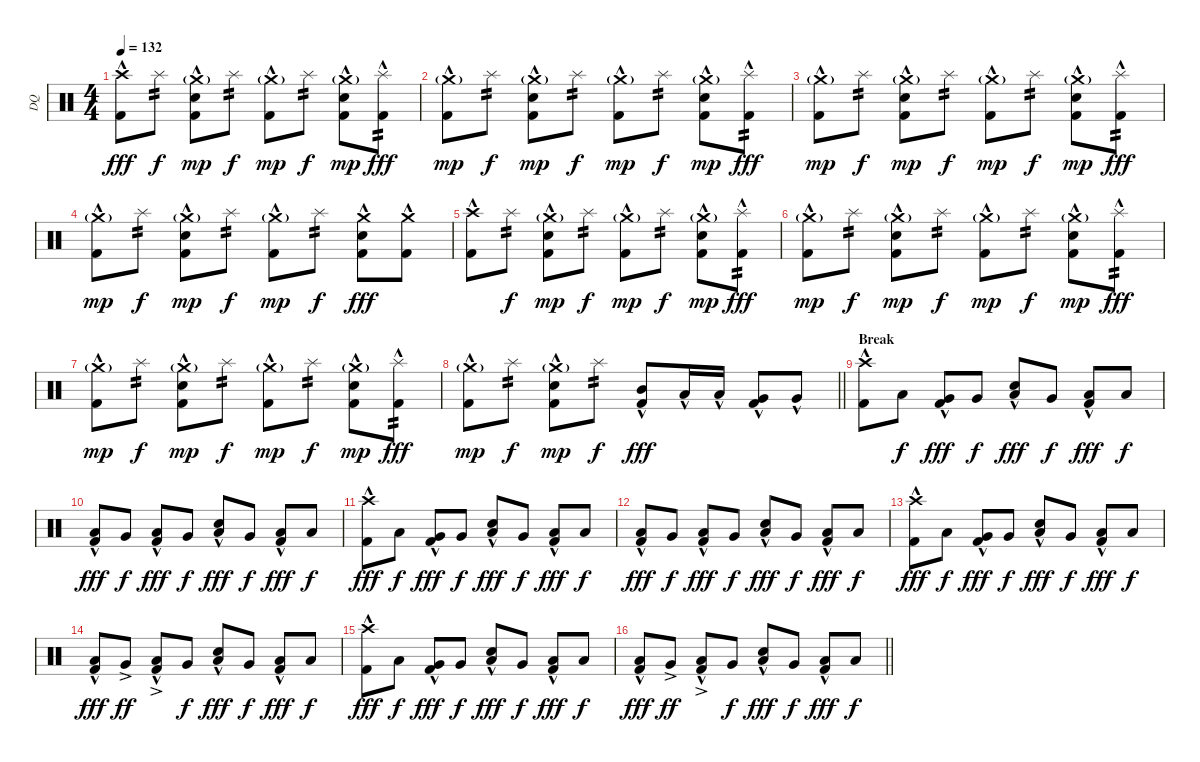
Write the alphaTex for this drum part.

\track ("DQ" "DQ") {instrument percussion}
\staff {score}
\articulation defaults
\ts (4 4)
\section ("" "")
\tempo 132
\clef neutral
\ks c
("Kick (hit) 2"{hac} "Crash high (hit)").8{dy fff} "Splash (hit)".8{tp 2 dy f} ("Kick (hit) 2"{hac} "Snare (hit) 2"{hac} "Crash medium (hit)"{g}).8{dy mp} "Splash (hit)".8{tp 2 dy f} ("Kick (hit) 2"{hac} "Crash medium (hit)"{g}).8{dy mp} "Splash (hit)".8{tp 2 dy f} ("Kick (hit) 2"{hac} "Snare (hit) 2"{hac} "Crash medium (hit)"{g}).8{dy mp} ("Kick (hit) 2"{hac} "Splash (hit)").8{tp 2 dy fff} |
("Kick (hit) 2"{hac} "Crash medium (hit)"{g}).8{dy mp} "Splash (hit)".8{tp 2 dy f} ("Kick (hit) 2"{hac} "Snare (hit) 2"{hac} "Crash medium (hit)"{g}).8{dy mp} "Splash (hit)".8{tp 2 dy f} ("Kick (hit) 2"{hac} "Crash medium (hit)"{g}).8{dy mp} "Splash (hit)".8{tp 2 dy f} ("Kick (hit) 2"{hac} "Snare (hit) 2"{hac} "Crash medium (hit)"{g}).8{dy mp} ("Kick (hit) 2"{hac} "Splash (hit)").8{tp 2 dy fff} |
("Kick (hit) 2"{hac} "Crash medium (hit)"{g}).8{dy mp} "Splash (hit)".8{tp 2 dy f} ("Kick (hit) 2"{hac} "Snare (hit) 2"{hac} "Crash medium (hit)"{g}).8{dy mp} "Splash (hit)".8{tp 2 dy f} ("Kick (hit) 2"{hac} "Crash medium (hit)"{g}).8{dy mp} "Splash (hit)".8{tp 2 dy f} ("Kick (hit) 2"{hac} "Snare (hit) 2"{hac} "Crash medium (hit)"{g}).8{dy mp} ("Kick (hit) 2"{hac} "Splash (hit)").8{tp 2 dy fff} |
("Kick (hit) 2"{hac} "Crash medium (hit)"{g}).8{dy mp} "Splash (hit)".8{tp 2 dy f} ("Kick (hit) 2"{hac} "Snare (hit) 2"{hac} "Crash medium (hit)"{g}).8{dy mp} "Splash (hit)".8{tp 2 dy f} ("Kick (hit) 2"{hac} "Crash medium (hit)"{g}).8{dy mp} "Splash (hit)".8{tp 2 dy f} ("Kick (hit) 2"{hac} "Snare (hit) 2"{hac} "Crash medium (hit)").8{dy fff} ("Kick (hit) 2"{hac} "Crash medium (hit)").8 |
("Kick (hit) 2"{hac} "Crash high (hit)").8 "Splash (hit)".8{tp 2 dy f} ("Kick (hit) 2"{hac} "Snare (hit) 2"{hac} "Crash medium (hit)"{g}).8{dy mp} "Splash (hit)".8{tp 2 dy f} ("Kick (hit) 2"{hac} "Crash medium (hit)"{g}).8{dy mp} "Splash (hit)".8{tp 2 dy f} ("Kick (hit) 2"{hac} "Snare (hit) 2"{hac} "Crash medium (hit)"{g}).8{dy mp} ("Kick (hit) 2"{hac} "Splash (hit)").8{tp 2 dy fff} |
("Kick (hit) 2"{hac} "Crash medium (hit)"{g}).8{dy mp} "Splash (hit)".8{tp 2 dy f} ("Kick (hit) 2"{hac} "Snare (hit) 2"{hac} "Crash medium (hit)"{g}).8{dy mp} "Splash (hit)".8{tp 2 dy f} ("Kick (hit) 2"{hac} "Crash medium (hit)"{g}).8{dy mp} "Splash (hit)".8{tp 2 dy f} ("Kick (hit) 2"{hac} "Snare (hit) 2"{hac} "Crash medium (hit)"{g}).8{dy mp} ("Kick (hit) 2"{hac} "Splash (hit)").8{tp 2 dy fff} |
("Kick (hit) 2"{hac} "Crash medium (hit)"{g}).8{dy mp} "Splash (hit)".8{tp 2 dy f} ("Kick (hit) 2"{hac} "Snare (hit) 2"{hac} "Crash medium (hit)"{g}).8{dy mp} "Splash (hit)".8{tp 2 dy f} ("Kick (hit) 2"{hac} "Crash medium (hit)"{g}).8{dy mp} "Splash (hit)".8{tp 2 dy f} ("Kick (hit) 2"{hac} "Snare (hit) 2"{hac} "Crash medium (hit)"{g}).8{dy mp} ("Kick (hit) 2"{hac} "Splash (hit)").8{tp 2 dy fff} |
\barLineRight lightlight
("Kick (hit) 2"{hac} "Crash medium (hit)"{g}).8{dy mp} "Splash (hit)".8{tp 2 dy f} ("Kick (hit) 2"{hac} "Snare (hit) 2"{hac} "Crash medium (hit)"{g}).8{dy mp} "Splash (hit)".8{tp 2 dy f} ("Kick (hit) 2"{hac} "Mid Tom (hit)"{hac}).8{dy fff} "Low Tom (hit)"{hac}.16 "Low Tom (hit)"{hac}.16 ("Kick (hit) 2"{hac} "Very Low Tom (hit)"{hac}).8 "Very Low Tom (hit)"{hac}.8 |
\section ("" "Break")
("Kick (hit) 2"{hac} "Crash high (hit)").8 "Low Floor Tom (hit)".8{dy f} ("Kick (hit) 2"{hac} "Very Low Tom (hit)").8{dy fff} "Very Low Tom (hit)".8{dy f} ("Snare (hit) 2"{hac} "Low Floor Tom (hit)").8{dy fff} "Very Low Tom (hit)".8{dy f} ("Kick (hit) 2"{hac} "Low Floor Tom (hit)").8{dy fff} "Low Floor Tom (hit)".8{dy f} |
("Kick (hit) 2"{hac} "Low Floor Tom (hit)").8{dy fff} "Very Low Tom (hit)".8{dy f} ("Kick (hit) 2"{hac} "Low Floor Tom (hit)").8{dy fff} "Very Low Tom (hit)".8{dy f} ("Snare (hit) 2"{hac} "Low Floor Tom (hit)").8{dy fff} "Very Low Tom (hit)".8{dy f} ("Kick (hit) 2"{hac} "Low Floor Tom (hit)").8{dy fff} "Low Floor Tom (hit)".8{dy f} |
("Kick (hit) 2"{hac} "Crash high (hit)").8{dy fff} "Low Floor Tom (hit)".8{dy f} ("Kick (hit) 2"{hac} "Very Low Tom (hit)").8{dy fff} "Very Low Tom (hit)".8{dy f} ("Snare (hit) 2"{hac} "Low Floor Tom (hit)").8{dy fff} "Very Low Tom (hit)".8{dy f} ("Kick (hit) 2"{hac} "Low Floor Tom (hit)").8{dy fff} "Low Floor Tom (hit)".8{dy f} |
("Kick (hit) 2"{hac} "Low Floor Tom (hit)").8{dy fff} "Very Low Tom (hit)".8{dy f} ("Kick (hit) 2"{hac} "Low Floor Tom (hit)").8{dy fff} "Very Low Tom (hit)".8{dy f} ("Snare (hit) 2"{hac} "Low Floor Tom (hit)").8{dy fff} "Very Low Tom (hit)".8{dy f} ("Kick (hit) 2"{hac} "Low Floor Tom (hit)").8{dy fff} "Low Floor Tom (hit)".8{dy f} |
("Kick (hit) 2"{hac} "Crash high (hit)").8{dy fff} "Low Floor Tom (hit)".8{dy f} ("Kick (hit) 2"{hac} "Very Low Tom (hit)").8{dy fff} "Very Low Tom (hit)".8{dy f} ("Snare (hit) 2"{hac} "Low Floor Tom (hit)").8{dy fff} "Very Low Tom (hit)".8{dy f} ("Kick (hit) 2"{hac} "Low Floor Tom (hit)").8{dy fff} "Low Floor Tom (hit)".8{dy f} |
("Kick (hit) 2"{hac} "Low Floor Tom (hit)").8{dy fff} "Very Low Tom (hit)"{ac}.8{dy ff} ("Kick (hit) 2"{hac} "Low Floor Tom (hit)"{ac}).8 "Very Low Tom (hit)".8{dy f} ("Snare (hit) 2"{hac} "Low Floor Tom (hit)").8{dy fff} "Very Low Tom (hit)".8{dy f} ("Kick (hit) 2"{hac} "Low Floor Tom (hit)").8{dy fff} "Low Floor Tom (hit)".8{dy f} |
("Kick (hit) 2"{hac} "Crash high (hit)").8{dy fff} "Low Floor Tom (hit)".8{dy f} ("Kick (hit) 2"{hac} "Very Low Tom (hit)").8{dy fff} "Very Low Tom (hit)".8{dy f} ("Snare (hit) 2"{hac} "Low Floor Tom (hit)").8{dy fff} "Very Low Tom (hit)".8{dy f} ("Kick (hit) 2"{hac} "Low Floor Tom (hit)").8{dy fff} "Low Floor Tom (hit)".8{dy f} |
\barLineRight lightlight
("Kick (hit) 2"{hac} "Low Floor Tom (hit)").8{dy fff} "Very Low Tom (hit)"{ac}.8{dy ff} ("Kick (hit) 2"{hac} "Low Floor Tom (hit)"{ac}).8 "Very Low Tom (hit)".8{dy f} ("Snare (hit) 2"{hac} "Low Floor Tom (hit)").8{dy fff} "Very Low Tom (hit)".8{dy f} ("Kick (hit) 2"{hac} "Low Floor Tom (hit)").8{dy fff} "Low Floor Tom (hit)".8{dy f}
